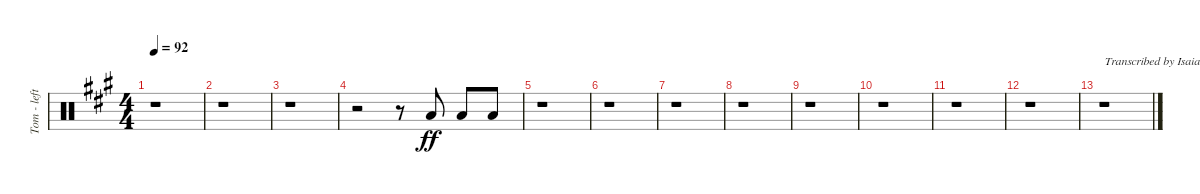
\track ("Tom - left" "Tom - left") {instrument percussion}
\staff {score}
\articulation defaults
\ts (4 4)
\tempo 92
\clef neutral
\ks f#minor
r.1{dy f} |
r.1 |
r.1 |
r.2 r.8 "Low Tom (hit)".8{dy ff beam split} "Low Tom (hit)".8 "Low Tom (hit)".8 |
r.1 |
r.1 |
r.1 |
r.1 |
r.1 |
r.1 |
r.1 |
r.1 |
r.1{txt "Transcribed by Isaias Garcia (TexasFury)"}
